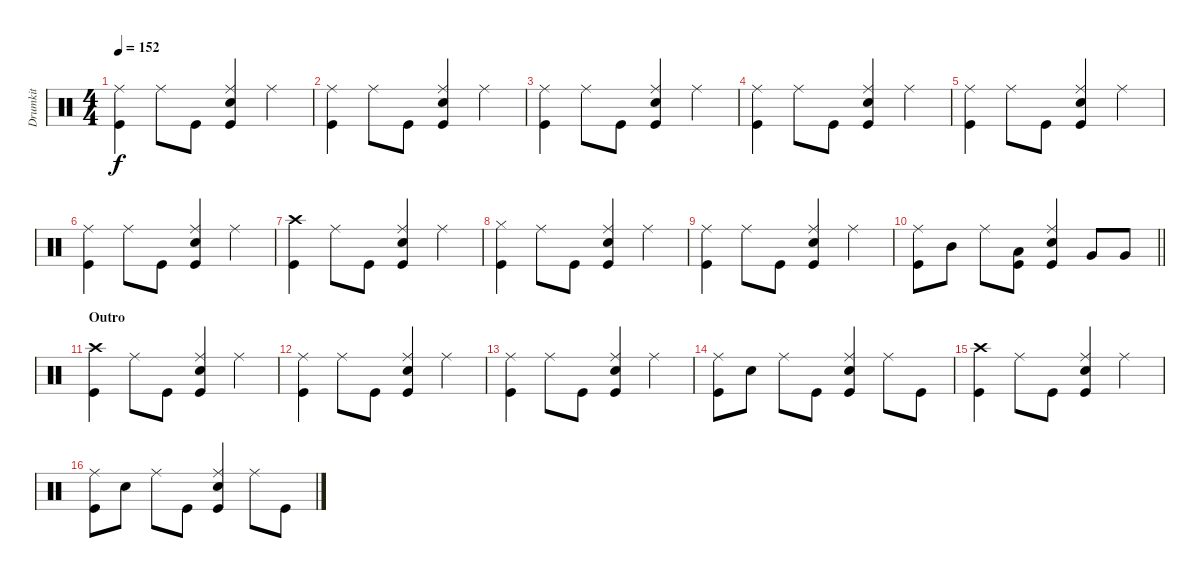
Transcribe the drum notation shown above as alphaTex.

\track ("Drumkit" "Drumkit") {instrument percussion}
\staff {score}
\articulation defaults
\ts (4 4)
\tempo 152
\clef neutral
\ks c
("Kick (hit)" "Ride (middle)").4{dy f} "Ride (middle)".8 "Kick (hit)".8 ("Snare (hit) 2" "Ride (middle)" "Kick (hit)").4 "Ride (middle)".4 |
("Kick (hit)" "Ride (middle)").4 "Ride (middle)".8 "Kick (hit)".8 ("Snare (hit) 2" "Ride (middle)" "Kick (hit)").4 "Ride (middle)".4 |
("Kick (hit)" "Ride (middle)").4 "Ride (middle)".8 "Kick (hit)".8 ("Snare (hit) 2" "Ride (middle)" "Kick (hit)").4 "Ride (middle)".4 |
("Kick (hit)" "Ride (middle)").4 "Ride (middle)".8 "Kick (hit)".8 ("Snare (hit) 2" "Ride (middle)" "Kick (hit)").4 "Ride (middle)".4 |
("Kick (hit)" "Ride (middle)").4 "Ride (middle)".8 "Kick (hit)".8 ("Snare (hit) 2" "Ride (middle)" "Kick (hit)").4 "Ride (middle)".4 |
("Kick (hit)" "Ride (middle)").4 "Ride (middle)".8 "Kick (hit)".8 ("Snare (hit) 2" "Ride (middle)" "Kick (hit)").4 "Ride (middle)".4 |
("Crash high (hit)" "Kick (hit)").4 "Ride (middle)".8 "Kick (hit)".8 ("Snare (hit) 2" "Ride (middle)" "Kick (hit)").4 "Ride (middle)".4 |
("Kick (hit)" "Hi-Hat (closed)").4 "Ride (middle)".8 "Kick (hit)".8 ("Snare (hit) 2" "Ride (middle)" "Kick (hit)").4 "Ride (middle)".4 |
("Kick (hit)" "Ride (middle)").4 "Ride (middle)".8 "Kick (hit)".8 ("Snare (hit) 2" "Ride (middle)" "Kick (hit)").4 "Ride (middle)".4 |
\barLineRight lightlight
("Kick (hit)" "Ride (middle)").8 "Mid Tom (hit)".8 "Ride (middle)".8 ("Kick (hit)" "Low Tom (hit)").8 ("Snare (hit) 2" "Ride (middle)" "Kick (hit)").4 "Very Low Tom (hit)".8 "Very Low Tom (hit)".8 |
\section ("" "Outro")
("Crash high (hit)" "Kick (hit)").4 "Ride (middle)".8 "Kick (hit)".8 ("Snare (hit) 2" "Ride (middle)" "Kick (hit)").4 "Ride (middle)".4 |
("Kick (hit)" "Ride (middle)").4 "Ride (middle)".8 "Kick (hit)".8 ("Snare (hit) 2" "Ride (middle)" "Kick (hit)").4 "Ride (middle)".4 |
("Kick (hit)" "Ride (middle)").4 "Ride (middle)".8 "Kick (hit)".8 ("Snare (hit) 2" "Ride (middle)" "Kick (hit)").4 "Ride (middle)".4 |
("Kick (hit)" "Ride (middle)").8 "Snare (hit) 2".8 "Ride (middle)".8 "Kick (hit)".8 ("Snare (hit) 2" "Ride (middle)" "Kick (hit)").4 "Ride (middle)".8 "Kick (hit)".8 |
("Kick (hit)" "Crash high (hit)").4 "Ride (middle)".8 "Kick (hit)".8 ("Snare (hit) 2" "Ride (middle)" "Kick (hit)").4 "Ride (middle)".4 |
("Kick (hit)" "Ride (middle)").8 "Snare (hit) 2".8 "Ride (middle)".8 "Kick (hit)".8 ("Snare (hit) 2" "Ride (middle)" "Kick (hit)").4 "Ride (middle)".8 "Kick (hit)".8
